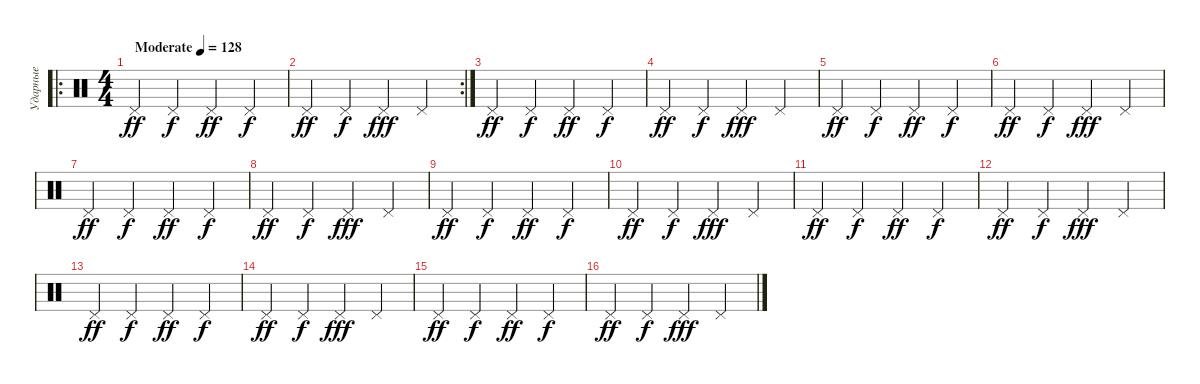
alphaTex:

\track ("Ударные" "Ударные") {instrument percussion}
\staff {score}
\articulation defaults
\ro
\ts (4 4)
\tempo (128 "Moderate")
\clef neutral
\ks c "Pedal Hi-Hat (hit)".4{dy ff} "Pedal Hi-Hat (hit)".4{dy f} "Pedal Hi-Hat (hit)".4{dy ff} "Pedal Hi-Hat (hit)".4{dy f}
|
\rc 2 "Pedal Hi-Hat (hit)".4{dy ff} "Pedal Hi-Hat (hit)".4{dy f} "Pedal Hi-Hat (hit)".4{dy fff} "Pedal Hi-Hat (hit)".4
|
"Pedal Hi-Hat (hit)".4{dy ff} "Pedal Hi-Hat (hit)".4{dy f} "Pedal Hi-Hat (hit)".4{dy ff} "Pedal Hi-Hat (hit)".4{dy f} |
"Pedal Hi-Hat (hit)".4{dy ff} "Pedal Hi-Hat (hit)".4{dy f} "Pedal Hi-Hat (hit)".4{dy fff} "Pedal Hi-Hat (hit)".4 |
"Pedal Hi-Hat (hit)".4{dy ff} "Pedal Hi-Hat (hit)".4{dy f} "Pedal Hi-Hat (hit)".4{dy ff} "Pedal Hi-Hat (hit)".4{dy f} |
"Pedal Hi-Hat (hit)".4{dy ff} "Pedal Hi-Hat (hit)".4{dy f} "Pedal Hi-Hat (hit)".4{dy fff} "Pedal Hi-Hat (hit)".4 |
"Pedal Hi-Hat (hit)".4{dy ff} "Pedal Hi-Hat (hit)".4{dy f} "Pedal Hi-Hat (hit)".4{dy ff} "Pedal Hi-Hat (hit)".4{dy f} |
"Pedal Hi-Hat (hit)".4{dy ff} "Pedal Hi-Hat (hit)".4{dy f} "Pedal Hi-Hat (hit)".4{dy fff} "Pedal Hi-Hat (hit)".4 |
"Pedal Hi-Hat (hit)".4{dy ff} "Pedal Hi-Hat (hit)".4{dy f} "Pedal Hi-Hat (hit)".4{dy ff} "Pedal Hi-Hat (hit)".4{dy f} |
"Pedal Hi-Hat (hit)".4{dy ff} "Pedal Hi-Hat (hit)".4{dy f} "Pedal Hi-Hat (hit)".4{dy fff} "Pedal Hi-Hat (hit)".4 |
"Pedal Hi-Hat (hit)".4{dy ff} "Pedal Hi-Hat (hit)".4{dy f} "Pedal Hi-Hat (hit)".4{dy ff} "Pedal Hi-Hat (hit)".4{dy f} |
"Pedal Hi-Hat (hit)".4{dy ff} "Pedal Hi-Hat (hit)".4{dy f} "Pedal Hi-Hat (hit)".4{dy fff} "Pedal Hi-Hat (hit)".4 |
"Pedal Hi-Hat (hit)".4{dy ff} "Pedal Hi-Hat (hit)".4{dy f} "Pedal Hi-Hat (hit)".4{dy ff} "Pedal Hi-Hat (hit)".4{dy f} |
"Pedal Hi-Hat (hit)".4{dy ff} "Pedal Hi-Hat (hit)".4{dy f} "Pedal Hi-Hat (hit)".4{dy fff} "Pedal Hi-Hat (hit)".4 |
"Pedal Hi-Hat (hit)".4{dy ff} "Pedal Hi-Hat (hit)".4{dy f} "Pedal Hi-Hat (hit)".4{dy ff} "Pedal Hi-Hat (hit)".4{dy f} |
"Pedal Hi-Hat (hit)".4{dy ff} "Pedal Hi-Hat (hit)".4{dy f} "Pedal Hi-Hat (hit)".4{dy fff} "Pedal Hi-Hat (hit)".4
